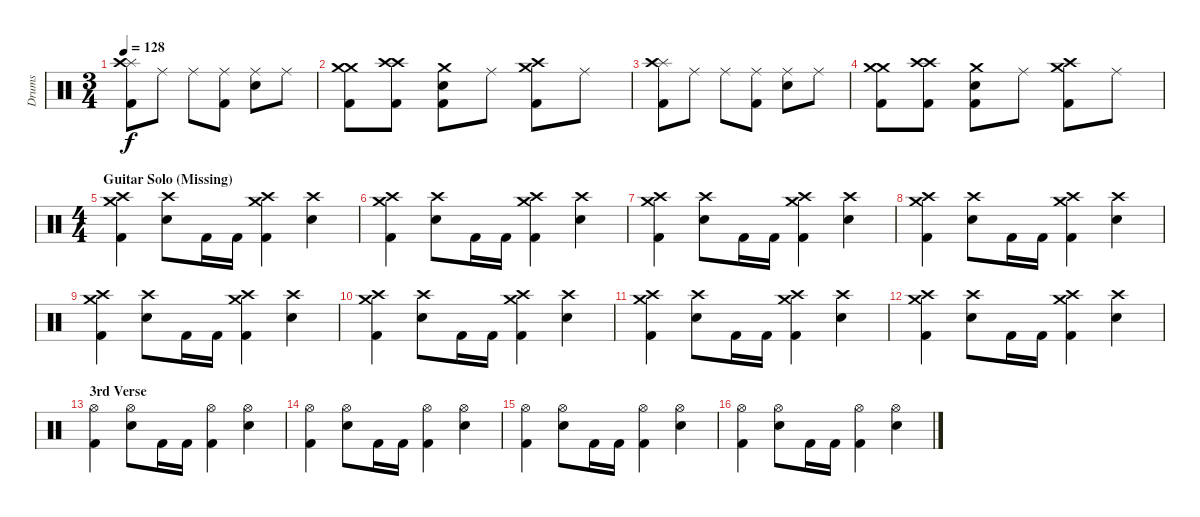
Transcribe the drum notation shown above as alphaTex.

\track ("Drums" "Drums") {instrument percussion}
\staff {score}
\articulation defaults
\ts (3 4)
\tempo 128
\clef neutral
\ks c
("Splash (hit)" "Crash high (hit)" "Kick (hit) 2").8{dy f} "Ride (middle)".8 "Ride (middle)".8 ("Ride (middle)" "Kick (hit) 2").8 ("Ride (middle)" "Snare (hit) 2").8 "Ride (middle)".8 |
("Crash medium (hit)" "Crash medium (hit)" "Kick (hit) 2").8 ("Crash high (hit)" "Crash high (hit)" "Kick (hit) 2").8 ("Crash medium (hit)" "Snare (hit) 2" "Kick (hit) 2").8 "Ride (middle)".8 ("Crash medium (hit)" "Crash high (hit)" "Kick (hit) 2").8 "Ride (middle)".8 |
("Splash (hit)" "Crash high (hit)" "Kick (hit) 2").8 "Ride (middle)".8 "Ride (middle)".8 ("Ride (middle)" "Kick (hit) 2").8 ("Ride (middle)" "Snare (hit) 2").8 "Ride (middle)".8 |
("Crash medium (hit)" "Crash medium (hit)" "Kick (hit) 2").8 ("Crash high (hit)" "Crash high (hit)" "Kick (hit) 2").8 ("Crash medium (hit)" "Snare (hit) 2" "Kick (hit) 2").8 "Ride (middle)".8 ("Crash medium (hit)" "Crash high (hit)" "Kick (hit) 2").8 "Ride (middle)".8 |
\ts (4 4)
\section ("" "Guitar Solo (Missing)")
("Crash high (hit)" "Crash medium (hit)" "Kick (hit) 2").4 ("Crash high (hit)" "Snare (hit) 2").8 "Kick (hit) 2".16 "Kick (hit) 2".16 ("Crash high (hit)" "Crash medium (hit)" "Kick (hit) 2").4 ("Crash high (hit)" "Snare (hit) 2").4 |
("Crash high (hit)" "Crash medium (hit)" "Kick (hit) 2").4 ("Crash high (hit)" "Snare (hit) 2").8 "Kick (hit) 2".16 "Kick (hit) 2".16 ("Crash high (hit)" "Crash medium (hit)" "Kick (hit) 2").4 ("Crash high (hit)" "Snare (hit) 2").4 |
("Crash high (hit)" "Crash medium (hit)" "Kick (hit) 2").4 ("Crash high (hit)" "Snare (hit) 2").8 "Kick (hit) 2".16 "Kick (hit) 2".16 ("Crash high (hit)" "Crash medium (hit)" "Kick (hit) 2").4 ("Crash high (hit)" "Snare (hit) 2").4 |
("Crash high (hit)" "Crash medium (hit)" "Kick (hit) 2").4 ("Crash high (hit)" "Snare (hit) 2").8 "Kick (hit) 2".16 "Kick (hit) 2".16 ("Crash high (hit)" "Crash medium (hit)" "Kick (hit) 2").4 ("Crash high (hit)" "Snare (hit) 2").4 |
("Crash high (hit)" "Crash medium (hit)" "Kick (hit) 2").4 ("Crash high (hit)" "Snare (hit) 2").8 "Kick (hit) 2".16 "Kick (hit) 2".16 ("Crash high (hit)" "Crash medium (hit)" "Kick (hit) 2").4 ("Crash high (hit)" "Snare (hit) 2").4 |
("Crash high (hit)" "Crash medium (hit)" "Kick (hit) 2").4 ("Crash high (hit)" "Snare (hit) 2").8 "Kick (hit) 2".16 "Kick (hit) 2".16 ("Crash high (hit)" "Crash medium (hit)" "Kick (hit) 2").4 ("Crash high (hit)" "Snare (hit) 2").4 |
("Crash high (hit)" "Crash medium (hit)" "Kick (hit) 2").4 ("Crash high (hit)" "Snare (hit) 2").8 "Kick (hit) 2".16 "Kick (hit) 2".16 ("Crash high (hit)" "Crash medium (hit)" "Kick (hit) 2").4 ("Crash high (hit)" "Snare (hit) 2").4 |
("Crash high (hit)" "Crash medium (hit)" "Kick (hit) 2").4 ("Crash high (hit)" "Snare (hit) 2").8 "Kick (hit) 2".16 "Kick (hit) 2".16 ("Crash high (hit)" "Crash medium (hit)" "Kick (hit) 2").4 ("Crash high (hit)" "Snare (hit) 2").4 |
\section ("" "3rd Verse")
("Hi-Hat (open)" "Kick (hit) 2").4 ("Hi-Hat (open)" "Snare (hit) 2").8 "Kick (hit) 2".16 "Kick (hit) 2".16 ("Hi-Hat (open)" "Kick (hit) 2").4 ("Hi-Hat (open)" "Snare (hit) 2").4 |
("Hi-Hat (open)" "Kick (hit) 2").4 ("Hi-Hat (open)" "Snare (hit) 2").8 "Kick (hit) 2".16 "Kick (hit) 2".16 ("Hi-Hat (open)" "Kick (hit) 2").4 ("Hi-Hat (open)" "Snare (hit) 2").4 |
("Hi-Hat (open)" "Kick (hit) 2").4 ("Hi-Hat (open)" "Snare (hit) 2").8 "Kick (hit) 2".16 "Kick (hit) 2".16 ("Hi-Hat (open)" "Kick (hit) 2").4 ("Hi-Hat (open)" "Snare (hit) 2").4 |
("Hi-Hat (open)" "Kick (hit) 2").4 ("Hi-Hat (open)" "Snare (hit) 2").8 "Kick (hit) 2".16 "Kick (hit) 2".16 ("Hi-Hat (open)" "Kick (hit) 2").4 ("Hi-Hat (open)" "Snare (hit) 2").4
